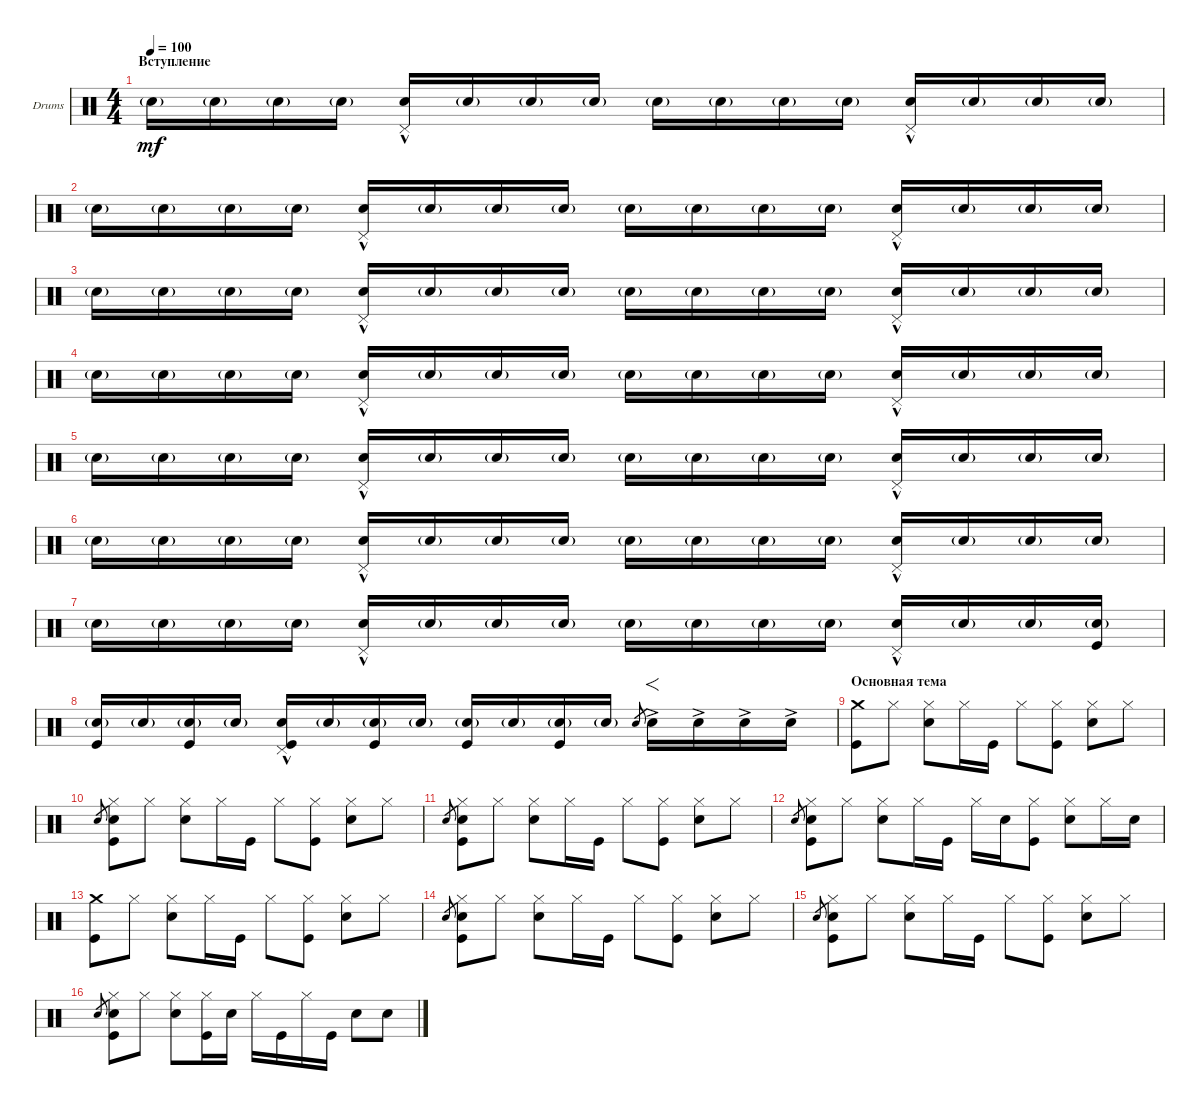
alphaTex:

\defaultSystemsLayout 4
\bracketExtendMode groupsimilarinstruments
\firstSystemTrackNameOrientation horizontal
\otherSystemsTrackNameOrientation horizontal
\track ("Drumkit" "Drums") {instrument percussion}
\staff {score}
\articulation defaults
\ts (4 4)
\section ("" "Вступление")
\tempo 100
\clef neutral
\scale
0.472222
\ks c "Snare (hit) 2"{g}.16{dy mf} "Snare (hit) 2"{g}.16 "Snare (hit) 2"{g}.16 "Snare (hit) 2"{g}.16
("Snare (hit) 2"{hac} "Pedal Hi-Hat (hit)").16 "Snare (hit) 2"{g}.16 "Snare (hit) 2"{g}.16 "Snare (hit) 2"{g}.16 "Snare (hit) 2"{g}.16 "Snare (hit) 2"{g}.16 "Snare (hit) 2"{g}.16 "Snare (hit) 2"{g}.16 ("Snare (hit) 2"{hac} "Pedal Hi-Hat (hit)").16 "Snare (hit) 2"{g}.16 "Snare (hit) 2"{g}.16 "Snare (hit) 2"{g}.16 |
\scale
0.263889 "Snare (hit) 2"{g}.16 "Snare (hit) 2"{g}.16 "Snare (hit) 2"{g}.16 "Snare (hit) 2"{g}.16 ("Snare (hit) 2"{hac} "Pedal Hi-Hat (hit)").16 "Snare (hit) 2"{g}.16 "Snare (hit) 2"{g}.16 "Snare (hit) 2"{g}.16 "Snare (hit) 2"{g}.16 "Snare (hit) 2"{g}.16 "Snare (hit) 2"{g}.16 "Snare (hit) 2"{g}.16 ("Snare (hit) 2"{hac} "Pedal Hi-Hat (hit)").16 "Snare (hit) 2"{g}.16 "Snare (hit) 2"{g}.16 "Snare (hit) 2"{g}.16 |
\scale
0.263889 "Snare (hit) 2"{g}.16 "Snare (hit) 2"{g}.16 "Snare (hit) 2"{g}.16 "Snare (hit) 2"{g}.16 ("Snare (hit) 2"{hac} "Pedal Hi-Hat (hit)").16 "Snare (hit) 2"{g}.16 "Snare (hit) 2"{g}.16 "Snare (hit) 2"{g}.16 "Snare (hit) 2"{g}.16 "Snare (hit) 2"{g}.16 "Snare (hit) 2"{g}.16 "Snare (hit) 2"{g}.16 ("Snare (hit) 2"{hac} "Pedal Hi-Hat (hit)").16 "Snare (hit) 2"{g}.16 "Snare (hit) 2"{g}.16 "Snare (hit) 2"{g}.16 |
\scale
0.333333 "Snare (hit) 2"{g}.16 "Snare (hit) 2"{g}.16 "Snare (hit) 2"{g}.16 "Snare (hit) 2"{g}.16 ("Snare (hit) 2"{hac} "Pedal Hi-Hat (hit)").16 "Snare (hit) 2"{g}.16 "Snare (hit) 2"{g}.16 "Snare (hit) 2"{g}.16 "Snare (hit) 2"{g}.16 "Snare (hit) 2"{g}.16 "Snare (hit) 2"{g}.16 "Snare (hit) 2"{g}.16 ("Snare (hit) 2"{hac} "Pedal Hi-Hat (hit)").16 "Snare (hit) 2"{g}.16 "Snare (hit) 2"{g}.16 "Snare (hit) 2"{g}.16 |
\scale
0.333333 "Snare (hit) 2"{g}.16 "Snare (hit) 2"{g}.16 "Snare (hit) 2"{g}.16 "Snare (hit) 2"{g}.16 ("Snare (hit) 2"{hac} "Pedal Hi-Hat (hit)").16 "Snare (hit) 2"{g}.16 "Snare (hit) 2"{g}.16 "Snare (hit) 2"{g}.16 "Snare (hit) 2"{g}.16 "Snare (hit) 2"{g}.16 "Snare (hit) 2"{g}.16 "Snare (hit) 2"{g}.16 ("Snare (hit) 2"{hac} "Pedal Hi-Hat (hit)").16 "Snare (hit) 2"{g}.16 "Snare (hit) 2"{g}.16 "Snare (hit) 2"{g}.16 |
\scale
0.333333 "Snare (hit) 2"{g}.16 "Snare (hit) 2"{g}.16 "Snare (hit) 2"{g}.16 "Snare (hit) 2"{g}.16 ("Snare (hit) 2"{hac} "Pedal Hi-Hat (hit)").16 "Snare (hit) 2"{g}.16 "Snare (hit) 2"{g}.16 "Snare (hit) 2"{g}.16 "Snare (hit) 2"{g}.16 "Snare (hit) 2"{g}.16 "Snare (hit) 2"{g}.16 "Snare (hit) 2"{g}.16 ("Snare (hit) 2"{hac} "Pedal Hi-Hat (hit)").16 "Snare (hit) 2"{g}.16 "Snare (hit) 2"{g}.16 "Snare (hit) 2"{g}.16 |
\scale
0.333333 "Snare (hit) 2"{g}.16 "Snare (hit) 2"{g}.16 "Snare (hit) 2"{g}.16 "Snare (hit) 2"{g}.16 ("Snare (hit) 2"{hac} "Pedal Hi-Hat (hit)").16 "Snare (hit) 2"{g}.16 "Snare (hit) 2"{g}.16 "Snare (hit) 2"{g}.16 "Snare (hit) 2"{g}.16 "Snare (hit) 2"{g}.16 "Snare (hit) 2"{g}.16 "Snare (hit) 2"{g}.16 ("Snare (hit) 2"{hac} "Pedal Hi-Hat (hit)").16 "Snare (hit) 2"{g}.16 "Snare (hit) 2"{g}.16 ("Snare (hit) 2"{g} "Kick (hit)").16 |
\scale
0.333333 ("Snare (hit) 2"{g} "Kick (hit)").16 "Snare (hit) 2"{g}.16 ("Snare (hit) 2"{g} "Kick (hit)").16 "Snare (hit) 2"{g}.16 ("Snare (hit) 2"{hac} "Pedal Hi-Hat (hit)" "Kick (hit)").16 "Snare (hit) 2"{g}.16 ("Snare (hit) 2"{g} "Kick (hit)").16 "Snare (hit) 2"{g}.16 ("Snare (hit) 2"{g} "Kick (hit)").16 "Snare (hit) 2"{g}.16 ("Snare (hit) 2"{g} "Kick (hit)").16 "Snare (hit) 2"{g}.16 "Snare (hit) 2".8{gr} "Snare (hit) 2"{ac}.16{f} "Snare (hit) 2"{ac}.16 "Snare (hit) 2"{ac}.16 "Snare (hit) 2"{ac}.16 |
\section ("" "Основная тема")
\scale
0.333333 ("Kick (hit)" "Crash medium (hit)").8 "Hi-Hat (closed)".8 ("Snare (hit) 2" "Hi-Hat (closed)").8 "Hi-Hat (closed)".16 "Kick (hit)".16 "Hi-Hat (closed)".8 ("Kick (hit)" "Hi-Hat (closed)").8 ("Snare (hit) 2" "Hi-Hat (closed)").8 "Hi-Hat (closed)".8 |
"Snare (hit) 2".8{gr} ("Snare (hit) 2" "Hi-Hat (closed)" "Kick (hit)").8 "Hi-Hat (closed)".8 ("Hi-Hat (closed)" "Snare (hit) 2").8 "Hi-Hat (closed)".16 "Kick (hit)".16 "Hi-Hat (closed)".8 ("Hi-Hat (closed)" "Kick (hit)").8 ("Snare (hit) 2" "Hi-Hat (closed)").8 "Hi-Hat (closed)".8 |
"Snare (hit) 2".8{gr} ("Snare (hit) 2" "Hi-Hat (closed)" "Kick (hit)").8 "Hi-Hat (closed)".8 ("Hi-Hat (closed)" "Snare (hit) 2").8 "Hi-Hat (closed)".16 "Kick (hit)".16 "Hi-Hat (closed)".8 ("Hi-Hat (closed)" "Kick (hit)").8 ("Snare (hit) 2" "Hi-Hat (closed)").8 "Hi-Hat (closed)".8 |
"Snare (hit) 2".8{gr} ("Snare (hit) 2" "Hi-Hat (closed)" "Kick (hit)").8 "Hi-Hat (closed)".8 ("Snare (hit) 2" "Hi-Hat (closed)").8 "Hi-Hat (closed)".16 "Kick (hit)".16 "Hi-Hat (closed)".16 "Snare (hit) 2".16 ("Hi-Hat (closed)" "Kick (hit)").8 ("Hi-Hat (closed)" "Snare (hit) 2").8 "Hi-Hat (closed)".16 "Snare (hit) 2".16 |
("Kick (hit)" "Crash medium (hit)").8 "Hi-Hat (closed)".8 ("Snare (hit) 2" "Hi-Hat (closed)").8 "Hi-Hat (closed)".16 "Kick (hit)".16 "Hi-Hat (closed)".8 ("Kick (hit)" "Hi-Hat (closed)").8 ("Snare (hit) 2" "Hi-Hat (closed)").8 "Hi-Hat (closed)".8 |
"Snare (hit) 2".8{gr} ("Snare (hit) 2" "Hi-Hat (closed)" "Kick (hit)").8 "Hi-Hat (closed)".8 ("Hi-Hat (closed)" "Snare (hit) 2").8 "Hi-Hat (closed)".16 "Kick (hit)".16 "Hi-Hat (closed)".8 ("Hi-Hat (closed)" "Kick (hit)").8 ("Snare (hit) 2" "Hi-Hat (closed)").8 "Hi-Hat (closed)".8 |
"Snare (hit) 2".8{gr} ("Snare (hit) 2" "Hi-Hat (closed)" "Kick (hit)").8 "Hi-Hat (closed)".8 ("Hi-Hat (closed)" "Snare (hit) 2").8 "Hi-Hat (closed)".16 "Kick (hit)".16 "Hi-Hat (closed)".8 ("Hi-Hat (closed)" "Kick (hit)").8 ("Snare (hit) 2" "Hi-Hat (closed)").8 "Hi-Hat (closed)".8 |
"Snare (hit) 2".8{gr} ("Snare (hit) 2" "Hi-Hat (closed)" "Kick (hit)").8 "Hi-Hat (closed)".8 ("Hi-Hat (closed)" "Snare (hit) 2").8 ("Hi-Hat (closed)" "Kick (hit)").16 "Snare (hit) 2".16 "Hi-Hat (closed)".16 "Kick (hit)".16 "Hi-Hat (closed)".16 "Kick (hit)".16 "Snare (hit) 2".8 "Snare (hit) 2".8
